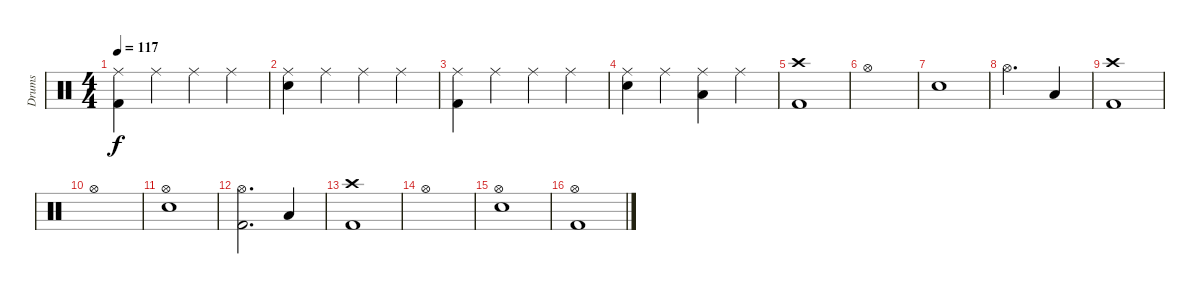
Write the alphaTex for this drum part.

\track ("Drums" "Drums") {instrument percussion}
\staff {score}
\articulation defaults
\ts (4 4)
\tempo 117
\clef neutral
\ks c
("Ride (middle)" "Kick (hit) 2").4{dy f} "Ride (middle)".4 "Ride (middle)".4 "Ride (middle)".4 |
("Ride (middle)" "Snare (hit) 2").4 "Ride (middle)".4 "Ride (middle)".4 "Ride (middle)".4 |
("Ride (middle)" "Kick (hit) 2").4 "Ride (middle)".4 "Ride (middle)".4 "Ride (middle)".4 |
("Ride (middle)" "Snare (hit) 2").4 "Ride (middle)".4 ("Ride (middle)" "Low Tom (hit)").4 "Ride (middle)".4 |
("Crash high (hit)" "Kick (hit) 2").1 |
"Hi-Hat (open)".1 |
"Snare (hit) 2".1 |
"Hi-Hat (open)".2{d} "Low Tom (hit)".4 |
("Crash high (hit)" "Kick (hit) 2").1 |
"Hi-Hat (open)".1 |
("Hi-Hat (open)" "Snare (hit) 2").1 |
("Hi-Hat (open)" "Kick (hit) 2").2{d} "Low Tom (hit)".4 |
("Crash high (hit)" "Kick (hit) 2").1 |
"Hi-Hat (open)".1 |
("Hi-Hat (open)" "Snare (hit) 2").1 |
("Hi-Hat (open)" "Kick (hit) 2").1
